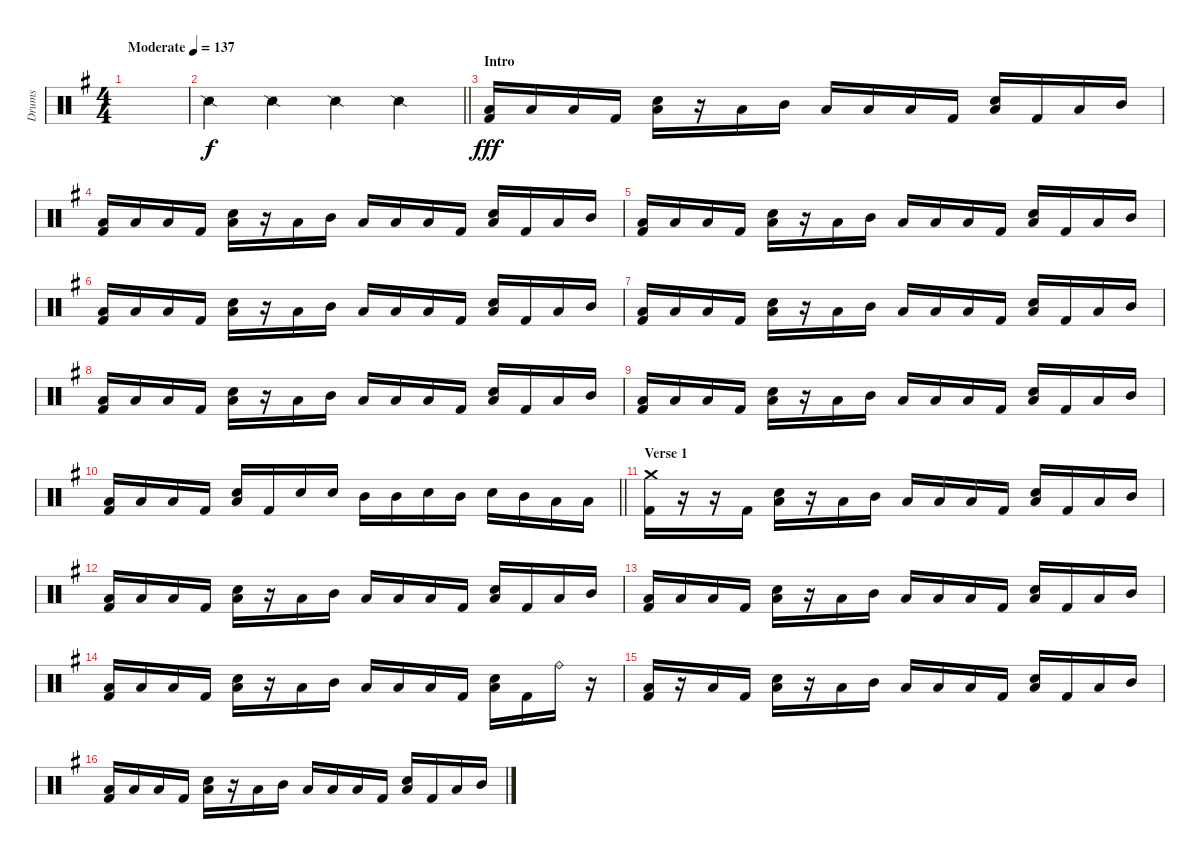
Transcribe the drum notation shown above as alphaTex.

\track ("Drums" "Drums") {instrument percussion}
\staff {score}
\articulation defaults
\ts (4 4)
\tempo (137 "Moderate")
\clef neutral
\ks eminor
|
\barLineRight lightlight "Snare (side stick) 2".4 "Snare (side stick) 2".4 "Snare (side stick) 2".4 "Snare (side stick) 2".4
|
\section ("" "Intro")
("Low Floor Tom (hit)" "Kick (hit) 2").16{dy fff} "Low Tom (hit)".16 "Low Floor Tom (hit)".16 "Kick (hit) 2".16 ("Electric Snare (hit)" "Low Floor Tom (hit)").16 r.16 "Low Floor Tom (hit)".16 "Mid Tom (hit)".16 "Low Floor Tom (hit)".16 "Low Tom (hit)".16 "Low Floor Tom (hit)".16 "Kick (hit) 2".16 ("Electric Snare (hit)" "Low Floor Tom (hit)").16 "Kick (hit) 2".16 "Low Floor Tom (hit)".16 "Mid Tom (hit)".16 |
("Low Floor Tom (hit)" "Kick (hit) 2").16 "Low Tom (hit)".16 "Low Floor Tom (hit)".16 "Kick (hit) 2".16 ("Electric Snare (hit)" "Low Floor Tom (hit)").16 r.16 "Low Floor Tom (hit)".16 "Mid Tom (hit)".16 "Low Floor Tom (hit)".16 "Low Tom (hit)".16 "Low Floor Tom (hit)".16 "Kick (hit) 2".16 ("Electric Snare (hit)" "Low Floor Tom (hit)").16 "Kick (hit) 2".16 "Low Floor Tom (hit)".16 "Mid Tom (hit)".16 |
("Low Floor Tom (hit)" "Kick (hit) 2").16 "Low Tom (hit)".16 "Low Floor Tom (hit)".16 "Kick (hit) 2".16 ("Electric Snare (hit)" "Low Floor Tom (hit)").16 r.16 "Low Floor Tom (hit)".16 "Mid Tom (hit)".16 "Low Floor Tom (hit)".16 "Low Tom (hit)".16 "Low Floor Tom (hit)".16 "Kick (hit) 2".16 ("Electric Snare (hit)" "Low Floor Tom (hit)").16 "Kick (hit) 2".16 "Low Floor Tom (hit)".16 "Mid Tom (hit)".16 |
("Low Floor Tom (hit)" "Kick (hit) 2").16 "Low Tom (hit)".16 "Low Floor Tom (hit)".16 "Kick (hit) 2".16 ("Electric Snare (hit)" "Low Floor Tom (hit)").16 r.16 "Low Floor Tom (hit)".16 "Mid Tom (hit)".16 "Low Floor Tom (hit)".16 "Low Tom (hit)".16 "Low Floor Tom (hit)".16 "Kick (hit) 2".16 ("Electric Snare (hit)" "Low Floor Tom (hit)").16 "Kick (hit) 2".16 "Low Floor Tom (hit)".16 "Mid Tom (hit)".16 |
("Low Floor Tom (hit)" "Kick (hit) 2").16 "Low Tom (hit)".16 "Low Floor Tom (hit)".16 "Kick (hit) 2".16 ("Electric Snare (hit)" "Low Floor Tom (hit)").16 r.16 "Low Floor Tom (hit)".16 "Mid Tom (hit)".16 "Low Floor Tom (hit)".16 "Low Tom (hit)".16 "Low Floor Tom (hit)".16 "Kick (hit) 2".16 ("Electric Snare (hit)" "Low Floor Tom (hit)").16 "Kick (hit) 2".16 "Low Floor Tom (hit)".16 "Mid Tom (hit)".16 |
("Low Floor Tom (hit)" "Kick (hit) 2").16 "Low Tom (hit)".16 "Low Floor Tom (hit)".16 "Kick (hit) 2".16 ("Electric Snare (hit)" "Low Floor Tom (hit)").16 r.16 "Low Floor Tom (hit)".16 "Mid Tom (hit)".16 "Low Floor Tom (hit)".16 "Low Tom (hit)".16 "Low Floor Tom (hit)".16 "Kick (hit) 2".16 ("Electric Snare (hit)" "Low Floor Tom (hit)").16 "Kick (hit) 2".16 "Low Floor Tom (hit)".16 "Mid Tom (hit)".16 |
("Low Floor Tom (hit)" "Kick (hit) 2").16 "Low Tom (hit)".16 "Low Floor Tom (hit)".16 "Kick (hit) 2".16 ("Electric Snare (hit)" "Low Floor Tom (hit)").16 r.16 "Low Floor Tom (hit)".16 "Mid Tom (hit)".16 "Low Floor Tom (hit)".16 "Low Tom (hit)".16 "Low Floor Tom (hit)".16 "Kick (hit) 2".16 ("Electric Snare (hit)" "Low Floor Tom (hit)").16 "Kick (hit) 2".16 "Low Floor Tom (hit)".16 "Mid Tom (hit)".16 |
\barLineRight lightlight
("Low Floor Tom (hit)" "Kick (hit) 2").16 "Low Tom (hit)".16 "Low Floor Tom (hit)".16 "Kick (hit) 2".16 ("Electric Snare (hit)" "Low Floor Tom (hit)").16 "Kick (hit) 2".16 "Electric Snare (hit)".16 "Electric Snare (hit)".16 "Mid Tom (hit)".16 "Mid Tom (hit)".16 "Electric Snare (hit)".16 "Mid Tom (hit)".16 "Electric Snare (hit)".16 "Mid Tom (hit)".16 "Low Tom (hit)".16 "Low Tom (hit)".16 |
\section ("" "Verse 1")
("Crash medium (hit)" "Kick (hit) 2").16 r.16 r.16 "Kick (hit) 2".16 ("Electric Snare (hit)" "Low Floor Tom (hit)").16 r.16 "Low Floor Tom (hit)".16 "Mid Tom (hit)".16 "Low Floor Tom (hit)".16 "Low Tom (hit)".16 "Low Floor Tom (hit)".16 "Kick (hit) 2".16 ("Electric Snare (hit)" "Low Floor Tom (hit)").16 "Kick (hit) 2".16 "Low Floor Tom (hit)".16 "Mid Tom (hit)".16 |
("Low Floor Tom (hit)" "Kick (hit) 2").16 "Low Tom (hit)".16 "Low Floor Tom (hit)".16 "Kick (hit) 2".16 ("Electric Snare (hit)" "Low Floor Tom (hit)").16 r.16 "Low Floor Tom (hit)".16 "Mid Tom (hit)".16 "Low Floor Tom (hit)".16 "Low Tom (hit)".16 "Low Floor Tom (hit)".16 "Kick (hit) 2".16 ("Electric Snare (hit)" "Low Floor Tom (hit)").16 "Kick (hit) 2".16 "Low Floor Tom (hit)".16 "Mid Tom (hit)".16 |
("Low Floor Tom (hit)" "Kick (hit) 2").16 "Low Tom (hit)".16 "Low Floor Tom (hit)".16 "Kick (hit) 2".16 ("Electric Snare (hit)" "Low Floor Tom (hit)").16 r.16 "Low Floor Tom (hit)".16 "Mid Tom (hit)".16 "Low Floor Tom (hit)".16 "Low Tom (hit)".16 "Low Floor Tom (hit)".16 "Kick (hit) 2".16 ("Electric Snare (hit)" "Low Floor Tom (hit)").16 "Kick (hit) 2".16 "Low Floor Tom (hit)".16 "Mid Tom (hit)".16 |
("Low Floor Tom (hit)" "Kick (hit) 2").16 "Low Tom (hit)".16 "Low Floor Tom (hit)".16 "Kick (hit) 2".16 ("Electric Snare (hit)" "Low Floor Tom (hit)").16 r.16 "Low Floor Tom (hit)".16 "Mid Tom (hit)".16 "Low Floor Tom (hit)".16 "Low Tom (hit)".16 "Low Floor Tom (hit)".16 "Kick (hit) 2".16 ("Electric Snare (hit)" "Low Floor Tom (hit)").16 "Kick (hit) 2".16 "Ride (bell)".16 r.16 |
("Low Floor Tom (hit)" "Kick (hit) 2").16 r.16 "Low Floor Tom (hit)".16 "Kick (hit) 2".16 ("Electric Snare (hit)" "Low Floor Tom (hit)").16 r.16 "Low Floor Tom (hit)".16 "Mid Tom (hit)".16 "Low Floor Tom (hit)".16 "Low Tom (hit)".16 "Low Floor Tom (hit)".16 "Kick (hit) 2".16 ("Electric Snare (hit)" "Low Floor Tom (hit)").16 "Kick (hit) 2".16 "Low Floor Tom (hit)".16 "Mid Tom (hit)".16 |
("Low Floor Tom (hit)" "Kick (hit) 2").16 "Low Tom (hit)".16 "Low Floor Tom (hit)".16 "Kick (hit) 2".16 ("Electric Snare (hit)" "Low Floor Tom (hit)").16 r.16 "Low Floor Tom (hit)".16 "Mid Tom (hit)".16 "Low Floor Tom (hit)".16 "Low Tom (hit)".16 "Low Floor Tom (hit)".16 "Kick (hit) 2".16 ("Electric Snare (hit)" "Low Floor Tom (hit)").16 "Kick (hit) 2".16 "Low Floor Tom (hit)".16 "Mid Tom (hit)".16
